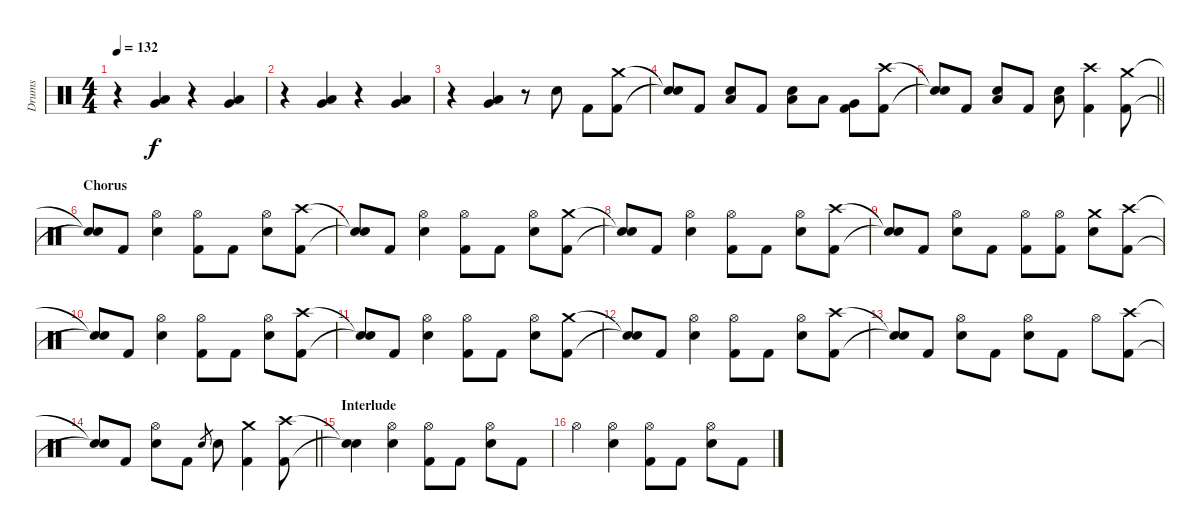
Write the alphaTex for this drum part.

\track ("Drums" "Drums") {instrument percussion}
\staff {score}
\articulation defaults
\ts (4 4)
\tempo 132
\clef neutral
\ks c
r.4{dy f} ("Low Tom (hit)" "Very Low Tom (hit)").4 r.4 ("Low Tom (hit)" "Very Low Tom (hit)").4 |
r.4 ("Low Tom (hit)" "Very Low Tom (hit)").4 r.4 ("Low Tom (hit)" "Very Low Tom (hit)").4 |
r.4 ("Low Tom (hit)" "Very Low Tom (hit)").4 r.8 "Electric Snare (hit)".8 "Kick (hit) 2".8 ("Crash medium (hit)" "Kick (hit) 2").8 |
("Snare (hit)"{t} "Snare (hit)"{t}).8 "Kick (hit) 2".8 ("Low Floor Tom (hit)" "Electric Snare (hit)").8 "Kick (hit) 2".8 ("Low Floor Tom (hit)" "Electric Snare (hit)").8 "Low Tom (hit)".8 ("Very Low Tom (hit)" "Kick (hit) 2").8 ("Crash high (hit)" "Kick (hit) 2").8 |
\barLineRight lightlight
("Snare (hit)"{t} "Snare (hit)"{t}).8 "Kick (hit) 2".8 ("Low Floor Tom (hit)" "Electric Snare (hit)").8 "Kick (hit) 2".8 ("Low Floor Tom (hit)" "Electric Snare (hit)").8 ("Crash high (hit)" "Kick (hit) 2").4 ("Crash medium (hit)" "Kick (hit) 2").8 |
\section ("" "Chorus")
("Snare (hit)"{t} "Snare (hit)"{t}).8 "Kick (hit) 2".8 ("Hi-Hat (open)" "Electric Snare (hit)").4 ("Hi-Hat (open)" "Kick (hit) 2").8 "Kick (hit) 2".8 ("Hi-Hat (open)" "Electric Snare (hit)").8 ("Crash high (hit)" "Kick (hit) 2").8 |
("Snare (hit)"{t} "Snare (hit)"{t}).8 "Kick (hit) 2".8 ("Hi-Hat (open)" "Electric Snare (hit)").4 ("Hi-Hat (open)" "Kick (hit) 2").8 "Kick (hit) 2".8 ("Hi-Hat (open)" "Electric Snare (hit)").8 ("Crash medium (hit)" "Kick (hit) 2").8 |
("Snare (hit)"{t} "Snare (hit)"{t}).8 "Kick (hit) 2".8 ("Hi-Hat (open)" "Electric Snare (hit)").4 ("Hi-Hat (open)" "Kick (hit) 2").8 "Kick (hit) 2".8 ("Hi-Hat (open)" "Electric Snare (hit)").8 ("Crash high (hit)" "Kick (hit) 2").8 |
("Snare (hit)"{t} "Snare (hit)"{t}).8 "Kick (hit) 2".8 ("Hi-Hat (open)" "Electric Snare (hit)").8 "Kick (hit) 2".8 ("Hi-Hat (open)" "Kick (hit) 2").8 ("Hi-Hat (open)" "Kick (hit) 2").8 ("Crash medium (hit)" "Electric Snare (hit)").8 ("Crash high (hit)" "Kick (hit) 2").8 |
("Snare (hit)"{t} "Snare (hit)"{t}).8 "Kick (hit) 2".8 ("Hi-Hat (open)" "Electric Snare (hit)").4 ("Hi-Hat (open)" "Kick (hit) 2").8 "Kick (hit) 2".8 ("Hi-Hat (open)" "Electric Snare (hit)").8 ("Crash high (hit)" "Kick (hit) 2").8 |
("Snare (hit)"{t} "Snare (hit)"{t}).8 "Kick (hit) 2".8 ("Hi-Hat (open)" "Electric Snare (hit)").4 ("Hi-Hat (open)" "Kick (hit) 2").8 "Kick (hit) 2".8 ("Hi-Hat (open)" "Electric Snare (hit)").8 ("Crash medium (hit)" "Kick (hit) 2").8 |
("Snare (hit)"{t} "Snare (hit)"{t}).8 "Kick (hit) 2".8 ("Hi-Hat (open)" "Electric Snare (hit)").4 ("Hi-Hat (open)" "Kick (hit) 2").8 "Kick (hit) 2".8 ("Hi-Hat (open)" "Electric Snare (hit)").8 ("Crash high (hit)" "Kick (hit) 2").8 |
("Snare (hit)"{t} "Snare (hit)"{t}).8 "Kick (hit) 2".8 ("Hi-Hat (open)" "Electric Snare (hit)").8 "Kick (hit) 2".8 ("Hi-Hat (open)" "Electric Snare (hit)").8 "Kick (hit) 2".8 "Hi-Hat (open)".8 ("Crash high (hit)" "Kick (hit) 2").8 |
\barLineRight lightlight
("Snare (hit)"{t} "Snare (hit)"{t}).8 "Kick (hit) 2".8 ("Hi-Hat (open)" "Electric Snare (hit)").8 "Kick (hit) 2".8 "Electric Snare (hit)".8{gr} "Electric Snare (hit)".8 ("Crash medium (hit)" "Kick (hit) 2").4 ("Crash high (hit)" "Kick (hit) 2").8 |
\section ("" "Interlude")
("Snare (hit)"{t} "Snare (hit)"{t}).4 ("Hi-Hat (open)" "Electric Snare (hit)").4 ("Hi-Hat (open)" "Kick (hit) 2").8 "Kick (hit) 2".8 ("Hi-Hat (open)" "Electric Snare (hit)").8 "Kick (hit) 2".8 |
"Hi-Hat (open)".4 ("Hi-Hat (open)" "Electric Snare (hit)").4 ("Hi-Hat (open)" "Kick (hit) 2").8 "Kick (hit) 2".8 ("Hi-Hat (open)" "Electric Snare (hit)").8 "Kick (hit) 2".8
